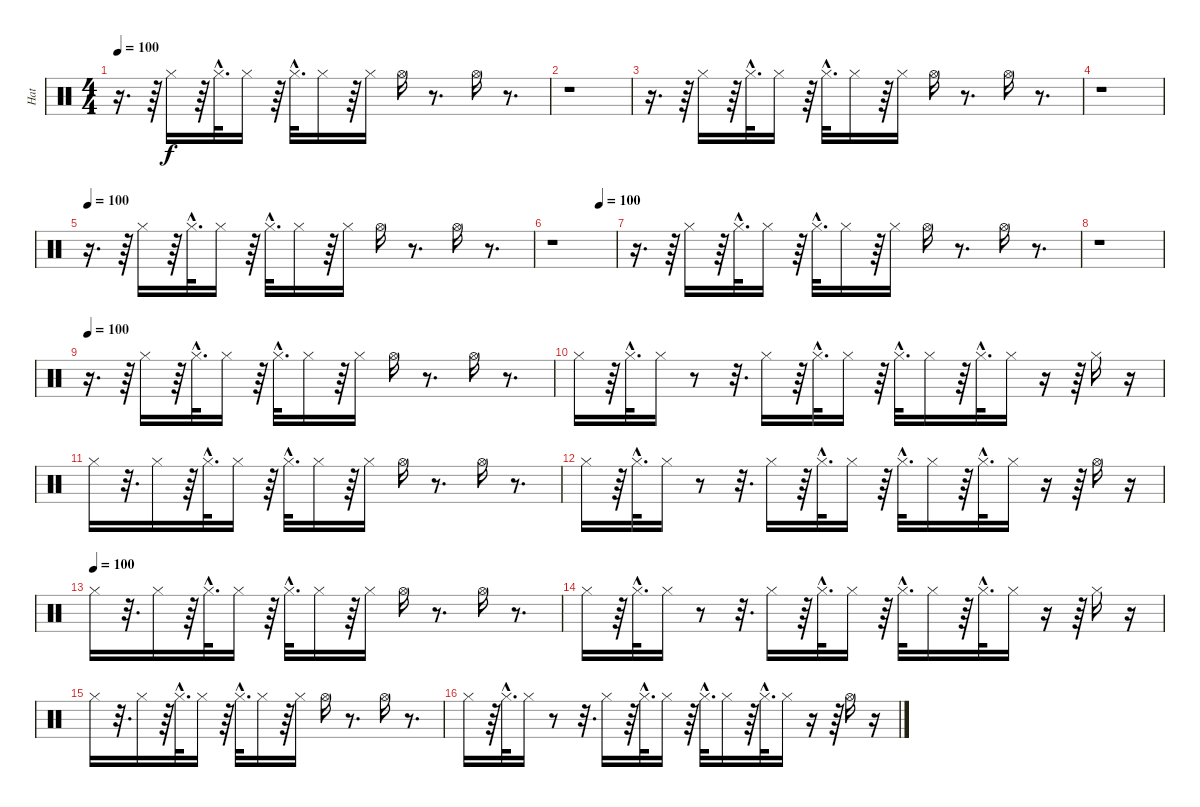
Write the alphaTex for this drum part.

\track ("Hat" "Hat") {instrument percussion}
\staff {score}
\articulation defaults
\ts (4 4)
\tempo 100
\clef neutral
\ks c
r.16{d dy f} r.64 "Hi-Hat (closed)".16 r.64 "Hi-Hat (closed)"{hac}.32{d} "Hi-Hat (closed)".16 r.64 "Hi-Hat (closed)"{hac}.32{d} "Hi-Hat (closed)".16 r.64 "Hi-Hat (closed)".16 "Hi-Hat (open)".16 r.8{d} "Hi-Hat (open)".16 r.8{d} |
r.1 |
r.16{d} r.64 "Hi-Hat (closed)".16 r.64 "Hi-Hat (closed)"{hac}.32{d} "Hi-Hat (closed)".16 r.64 "Hi-Hat (closed)"{hac}.32{d} "Hi-Hat (closed)".16 r.64 "Hi-Hat (closed)".16 "Hi-Hat (open)".16 r.8{d} "Hi-Hat (open)".16 r.8{d} |
r.1 |
\tempo 100
r.16{d} r.64 "Hi-Hat (closed)".16 r.64 "Hi-Hat (closed)"{hac}.32{d} "Hi-Hat (closed)".16 r.64 "Hi-Hat (closed)"{hac}.32{d} "Hi-Hat (closed)".16 r.64 "Hi-Hat (closed)".16 "Hi-Hat (open)".16 r.8{d} "Hi-Hat (open)".16 r.8{d} |
\tempo (100 0.75)
r.1 |
r.16{d} r.64 "Hi-Hat (closed)".16 r.64 "Hi-Hat (closed)"{hac}.32{d} "Hi-Hat (closed)".16 r.64 "Hi-Hat (closed)"{hac}.32{d} "Hi-Hat (closed)".16 r.64 "Hi-Hat (closed)".16 "Hi-Hat (open)".16 r.8{d} "Hi-Hat (open)".16 r.8{d} |
r.1 |
\tempo 100
r.16{d} r.64 "Hi-Hat (closed)".16 r.64 "Hi-Hat (closed)"{hac}.32{d} "Hi-Hat (closed)".16 r.64 "Hi-Hat (closed)"{hac}.32{d} "Hi-Hat (closed)".16 r.64 "Hi-Hat (closed)".16 "Hi-Hat (open)".16 r.8{d} "Hi-Hat (open)".16 r.8{d} |
"Hi-Hat (closed)".16 r.64 "Hi-Hat (closed)"{hac}.32{d} "Hi-Hat (closed)".16 r.8 r.32{d} "Hi-Hat (closed)".16 r.64 "Hi-Hat (closed)"{hac}.32{d} "Hi-Hat (closed)".16 r.64 "Hi-Hat (closed)"{hac}.32{d} "Hi-Hat (closed)".16 r.64 "Hi-Hat (closed)"{hac}.32{d} "Hi-Hat (closed)".16 r.16 r.64 "Hi-Hat (closed)".16 r.16 |
"Hi-Hat (closed)".16 r.32{d} "Hi-Hat (closed)".16 r.64 "Hi-Hat (closed)"{hac}.32{d} "Hi-Hat (closed)".16 r.64 "Hi-Hat (closed)"{hac}.32{d} "Hi-Hat (closed)".16 r.64 "Hi-Hat (closed)".16 "Hi-Hat (open)".16 r.8{d} "Hi-Hat (open)".16 r.8{d} |
"Hi-Hat (closed)".16 r.64 "Hi-Hat (closed)"{hac}.32{d} "Hi-Hat (closed)".16 r.8 r.32{d} "Hi-Hat (closed)".16 r.64 "Hi-Hat (closed)"{hac}.32{d} "Hi-Hat (closed)".16 r.64 "Hi-Hat (closed)"{hac}.32{d} "Hi-Hat (closed)".16 r.64 "Hi-Hat (closed)"{hac}.32{d} "Hi-Hat (closed)".16 r.16 r.64 "Hi-Hat (open)".16 r.16 |
\tempo (100)
"Hi-Hat (closed)".16 r.32{d} "Hi-Hat (closed)".16 r.64 "Hi-Hat (closed)"{hac}.32{d} "Hi-Hat (closed)".16 r.64 "Hi-Hat (closed)"{hac}.32{d} "Hi-Hat (closed)".16 r.64 "Hi-Hat (closed)".16 "Hi-Hat (open)".16 r.8{d} "Hi-Hat (open)".16 r.8{d} |
"Hi-Hat (closed)".16 r.64 "Hi-Hat (closed)"{hac}.32{d} "Hi-Hat (closed)".16 r.8 r.32{d} "Hi-Hat (closed)".16 r.64 "Hi-Hat (closed)"{hac}.32{d} "Hi-Hat (closed)".16 r.64 "Hi-Hat (closed)"{hac}.32{d} "Hi-Hat (closed)".16 r.64 "Hi-Hat (closed)"{hac}.32{d} "Hi-Hat (closed)".16 r.16 r.64 "Hi-Hat (closed)".16 r.16 |
"Hi-Hat (closed)".16 r.32{d} "Hi-Hat (closed)".16 r.64 "Hi-Hat (closed)"{hac}.32{d} "Hi-Hat (closed)".16 r.64 "Hi-Hat (closed)"{hac}.32{d} "Hi-Hat (closed)".16 r.64 "Hi-Hat (closed)".16 "Hi-Hat (open)".16 r.8{d} "Hi-Hat (open)".16 r.8{d} |
"Hi-Hat (closed)".16 r.64 "Hi-Hat (closed)"{hac}.32{d} "Hi-Hat (closed)".16 r.8 r.32{d} "Hi-Hat (closed)".16 r.64 "Hi-Hat (closed)"{hac}.32{d} "Hi-Hat (closed)".16 r.64 "Hi-Hat (closed)"{hac}.32{d} "Hi-Hat (closed)".16 r.64 "Hi-Hat (closed)"{hac}.32{d} "Hi-Hat (closed)".16 r.16 r.64 "Hi-Hat (open)".16 r.16
